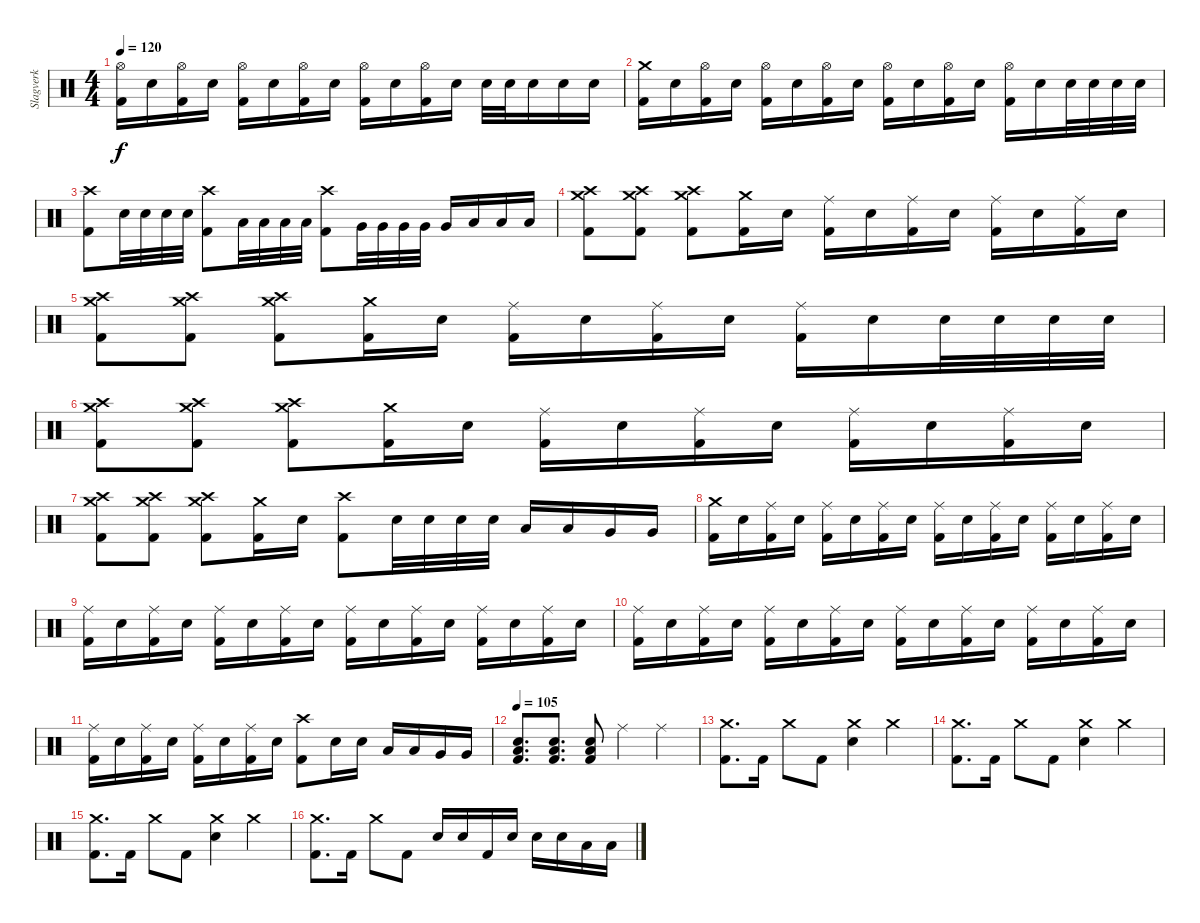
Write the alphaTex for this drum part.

\track ("Slagverk" "Slagverk") {instrument percussion}
\staff {score}
\articulation defaults
\ts (4 4)
\tempo 120
\clef neutral
\ks c
("Hi-Hat (open)" "Kick (hit) 2").16{dy f} "Electric Snare (hit)".16 ("Hi-Hat (open)" "Kick (hit) 2").16 "Electric Snare (hit)".16 ("Hi-Hat (open)" "Kick (hit) 2").16 "Electric Snare (hit)".16 ("Hi-Hat (open)" "Kick (hit) 2").16 "Electric Snare (hit)".16 ("Hi-Hat (open)" "Kick (hit) 2").16 "Electric Snare (hit)".16 ("Hi-Hat (open)" "Kick (hit) 2").16 "Electric Snare (hit)".16 "Electric Snare (hit)".32 "Electric Snare (hit)".32 "Electric Snare (hit)".16 "Electric Snare (hit)".16 "Electric Snare (hit)".16 |
("Crash medium (hit)" "Kick (hit) 2").16 "Electric Snare (hit)".16 ("Hi-Hat (open)" "Kick (hit) 2").16 "Electric Snare (hit)".16 ("Hi-Hat (open)" "Kick (hit) 2").16 "Electric Snare (hit)".16 ("Hi-Hat (open)" "Kick (hit) 2").16 "Electric Snare (hit)".16 ("Hi-Hat (open)" "Kick (hit) 2").16 "Electric Snare (hit)".16 ("Hi-Hat (open)" "Kick (hit) 2").16 "Electric Snare (hit)".16 ("Hi-Hat (open)" "Kick (hit) 2").16 "Electric Snare (hit)".16 "Electric Snare (hit)".32 "Electric Snare (hit)".32 "Electric Snare (hit)".32 "Electric Snare (hit)".32 |
("Crash high (hit)" "Kick (hit) 2").8 "Electric Snare (hit)".32 "Electric Snare (hit)".32 "Electric Snare (hit)".32 "Electric Snare (hit)".32 ("Crash high (hit)" "Kick (hit) 2").8 "Low Tom (hit)".32 "Low Tom (hit)".32 "Low Tom (hit)".32 "Low Tom (hit)".32 ("Crash high (hit)" "Kick (hit) 2").8 "Very Low Tom (hit)".32 "Very Low Tom (hit)".32 "Very Low Tom (hit)".32 "Very Low Tom (hit)".32 "Very Low Tom (hit)".16 "Low Floor Tom (hit)".16 "Low Floor Tom (hit)".16 "Low Floor Tom (hit)".16 |
("Crash medium (hit)" "Crash high (hit)" "Kick (hit) 2").8 ("Crash medium (hit)" "Crash high (hit)" "Kick (hit) 2").8 ("Crash medium (hit)" "Crash high (hit)" "Kick (hit) 2").8 ("Crash medium (hit)" "Kick (hit) 2").16 "Electric Snare (hit)".16 ("Ride (middle)" "Kick (hit) 2").16 "Electric Snare (hit)".16 ("Ride (middle)" "Kick (hit) 2").16 "Electric Snare (hit)".16 ("Ride (middle)" "Kick (hit) 2").16 "Electric Snare (hit)".16 ("Ride (middle)" "Kick (hit) 2").16 "Electric Snare (hit)".16 |
("Crash medium (hit)" "Crash high (hit)" "Kick (hit) 2").8 ("Crash medium (hit)" "Crash high (hit)" "Kick (hit) 2").8 ("Crash medium (hit)" "Crash high (hit)" "Kick (hit) 2").8 ("Crash medium (hit)" "Kick (hit) 2").16 "Electric Snare (hit)".16 ("Ride (middle)" "Kick (hit) 2").16 "Electric Snare (hit)".16 ("Ride (middle)" "Kick (hit) 2").16 "Electric Snare (hit)".16 ("Ride (middle)" "Kick (hit) 2").16 "Electric Snare (hit)".16 "Electric Snare (hit)".32 "Electric Snare (hit)".32 "Electric Snare (hit)".32 "Electric Snare (hit)".32 |
("Crash medium (hit)" "Crash high (hit)" "Kick (hit) 2").8 ("Crash medium (hit)" "Crash high (hit)" "Kick (hit) 2").8 ("Crash medium (hit)" "Crash high (hit)" "Kick (hit) 2").8 ("Crash medium (hit)" "Kick (hit) 2").16 "Electric Snare (hit)".16 ("Ride (middle)" "Kick (hit) 2").16 "Electric Snare (hit)".16 ("Ride (middle)" "Kick (hit) 2").16 "Electric Snare (hit)".16 ("Ride (middle)" "Kick (hit) 2").16 "Electric Snare (hit)".16 ("Ride (middle)" "Kick (hit) 2").16 "Electric Snare (hit)".16 |
("Crash medium (hit)" "Crash high (hit)" "Kick (hit) 2").8 ("Crash medium (hit)" "Crash high (hit)" "Kick (hit) 2").8 ("Crash medium (hit)" "Crash high (hit)" "Kick (hit) 2").8 ("Crash medium (hit)" "Kick (hit) 2").16 "Electric Snare (hit)".16 ("Crash high (hit)" "Kick (hit) 2").8 "Electric Snare (hit)".32 "Electric Snare (hit)".32 "Electric Snare (hit)".32 "Electric Snare (hit)".32 "Low Tom (hit)".16 "Low Tom (hit)".16 "Very Low Tom (hit)".16 "Very Low Tom (hit)".16 |
("Crash medium (hit)" "Kick (hit) 2").16 "Electric Snare (hit)".16 ("Ride (middle)" "Kick (hit) 2").16 "Electric Snare (hit)".16 ("Ride (middle)" "Kick (hit) 2").16 "Electric Snare (hit)".16 ("Ride (middle)" "Kick (hit) 2").16 "Electric Snare (hit)".16 ("Ride (middle)" "Kick (hit) 2").16 "Electric Snare (hit)".16 ("Ride (middle)" "Kick (hit) 2").16 "Electric Snare (hit)".16 ("Ride (middle)" "Kick (hit) 2").16 "Electric Snare (hit)".16 ("Ride (middle)" "Kick (hit) 2").16 "Electric Snare (hit)".16 |
("Ride (middle)" "Kick (hit) 2").16 "Electric Snare (hit)".16 ("Ride (middle)" "Kick (hit) 2").16 "Electric Snare (hit)".16 ("Ride (middle)" "Kick (hit) 2").16 "Electric Snare (hit)".16 ("Ride (middle)" "Kick (hit) 2").16 "Electric Snare (hit)".16 ("Ride (middle)" "Kick (hit) 2").16 "Electric Snare (hit)".16 ("Ride (middle)" "Kick (hit) 2").16 "Electric Snare (hit)".16 ("Ride (middle)" "Kick (hit) 2").16 "Electric Snare (hit)".16 ("Ride (middle)" "Kick (hit) 2").16 "Electric Snare (hit)".16 |
("Ride (middle)" "Kick (hit) 2").16 "Electric Snare (hit)".16 ("Ride (middle)" "Kick (hit) 2").16 "Electric Snare (hit)".16 ("Ride (middle)" "Kick (hit) 2").16 "Electric Snare (hit)".16 ("Ride (middle)" "Kick (hit) 2").16 "Electric Snare (hit)".16 ("Ride (middle)" "Kick (hit) 2").16 "Electric Snare (hit)".16 ("Ride (middle)" "Kick (hit) 2").16 "Electric Snare (hit)".16 ("Ride (middle)" "Kick (hit) 2").16 "Electric Snare (hit)".16 ("Ride (middle)" "Kick (hit) 2").16 "Electric Snare (hit)".16 |
("Ride (middle)" "Kick (hit) 2").16 "Electric Snare (hit)".16 ("Ride (middle)" "Kick (hit) 2").16 "Electric Snare (hit)".16 ("Ride (middle)" "Kick (hit) 2").16 "Electric Snare (hit)".16 ("Ride (middle)" "Kick (hit) 2").16 "Electric Snare (hit)".16 ("Crash high (hit)" "Kick (hit) 2").8 "Electric Snare (hit)".16 "Electric Snare (hit)".16 "Low Tom (hit)".16 "Low Tom (hit)".16 "Very Low Tom (hit)".16 "Very Low Tom (hit)".16 |
\tempo 105
("Low Floor Tom (hit)" "Electric Snare (hit)" "Kick (hit) 2").8{d} ("Low Floor Tom (hit)" "Electric Snare (hit)" "Kick (hit) 2").8{d} ("Low Floor Tom (hit)" "Electric Snare (hit)" "Kick (hit) 2").8 "Ride (middle)".4 "Ride (middle)".4 |
("Crash medium (hit)" "Kick (hit) 2").8{d} "Kick (hit) 2".16 "Crash medium (hit)".8 "Kick (hit) 2".8 ("Crash medium (hit)" "Electric Snare (hit)").4 "Crash medium (hit)".4 |
("Crash medium (hit)" "Kick (hit) 2").8{d} "Kick (hit) 2".16 "Crash medium (hit)".8 "Kick (hit) 2".8 ("Crash medium (hit)" "Electric Snare (hit)").4 "Crash medium (hit)".4 |
("Crash medium (hit)" "Kick (hit) 2").8{d} "Kick (hit) 2".16 "Crash medium (hit)".8 "Kick (hit) 2".8 ("Crash medium (hit)" "Electric Snare (hit)").4 "Crash medium (hit)".4 |
("Crash medium (hit)" "Kick (hit) 2").8{d} "Kick (hit) 2".16 "Crash medium (hit)".8 "Kick (hit) 2".8 "Electric Snare (hit)".16 "Electric Snare (hit)".16 "Kick (hit) 2".16 "Electric Snare (hit)".16 "Electric Snare (hit)".16 "Electric Snare (hit)".16 "Low Tom (hit)".16 "Low Tom (hit)".16
